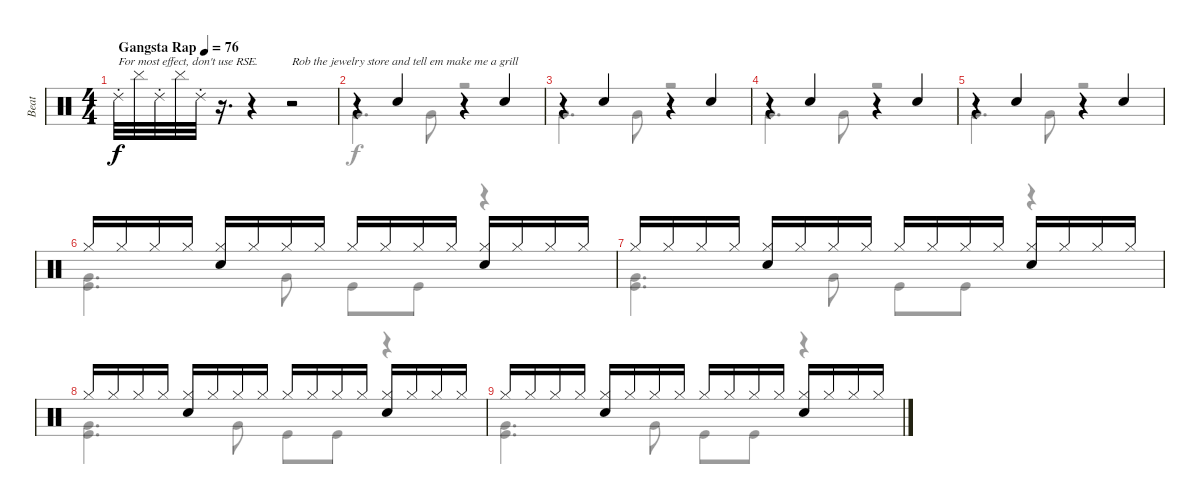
\track ("Beat" "Beat") {instrument percussion}
\staff {score}
\articulation defaults
\voice
\ts (4 4)
\tempo (76 "Gangsta Rap")
\clef neutral
\ks c "Ride (choke) 2".32{txt "For most effect, don't use RSE." dy f} "Cymbal (hit)".32 "Ride (choke) 2".32 "Cymbal (hit)".32 "Ride (choke) 2".32
r.16{d} r.4 r.2{txt "Rob the jewelry store and tell em make me a grill"} |
r.4 "Hand Clap (hit)".4 r.4 "Hand Clap (hit)".4 |
r.4 "Hand Clap (hit)".4 r.4 "Hand Clap (hit)".4 |
r.4 "Hand Clap (hit)".4 r.4 "Hand Clap (hit)".4 |
r.4 "Hand Clap (hit)".4 r.4 "Hand Clap (hit)".4 |
"Hi-Hat (closed)".16 "Hi-Hat (closed)".16 "Hi-Hat (closed)".16 "Hi-Hat (closed)".16 ("Hi-Hat (closed)" "Hand Clap (hit)").16 "Hi-Hat (closed)".16 "Hi-Hat (closed)".16 "Hi-Hat (closed)".16 "Hi-Hat (closed)".16 "Hi-Hat (closed)".16 "Hi-Hat (closed)".16 "Hi-Hat (closed)".16 ("Hi-Hat (closed)" "Hand Clap (hit)").16 "Hi-Hat (closed)".16 "Hi-Hat (closed)".16 "Hi-Hat (closed)".16 |
"Hi-Hat (closed)".16 "Hi-Hat (closed)".16 "Hi-Hat (closed)".16 "Hi-Hat (closed)".16 ("Hi-Hat (closed)" "Hand Clap (hit)").16 "Hi-Hat (closed)".16 "Hi-Hat (closed)".16 "Hi-Hat (closed)".16 "Hi-Hat (closed)".16 "Hi-Hat (closed)".16 "Hi-Hat (closed)".16 "Hi-Hat (closed)".16 ("Hi-Hat (closed)" "Hand Clap (hit)").16 "Hi-Hat (closed)".16 "Hi-Hat (closed)".16 "Hi-Hat (closed)".16 |
"Hi-Hat (closed)".16 "Hi-Hat (closed)".16 "Hi-Hat (closed)".16 "Hi-Hat (closed)".16 ("Hi-Hat (closed)" "Hand Clap (hit)").16 "Hi-Hat (closed)".16 "Hi-Hat (closed)".16 "Hi-Hat (closed)".16 "Hi-Hat (closed)".16 "Hi-Hat (closed)".16 "Hi-Hat (closed)".16 "Hi-Hat (closed)".16 ("Hi-Hat (closed)" "Hand Clap (hit)").16 "Hi-Hat (closed)".16 "Hi-Hat (closed)".16 "Hi-Hat (closed)".16 |
"Hi-Hat (closed)".16 "Hi-Hat (closed)".16 "Hi-Hat (closed)".16 "Hi-Hat (closed)".16 ("Hi-Hat (closed)" "Hand Clap (hit)").16 "Hi-Hat (closed)".16 "Hi-Hat (closed)".16 "Hi-Hat (closed)".16 "Hi-Hat (closed)".16 "Hi-Hat (closed)".16 "Hi-Hat (closed)".16 "Hi-Hat (closed)".16 ("Hi-Hat (closed)" "Hand Clap (hit)").16 "Hi-Hat (closed)".16 "Hi-Hat (closed)".16 "Hi-Hat (closed)".16
\voice
\clef neutral
\ottava regular
\simile none
\ks c
|
"Very Low Tom (hit)".4{d} "Very Low Tom (hit)".8 r.2 |
"Very Low Tom (hit)".4{d} "Very Low Tom (hit)".8 r.2 |
"Very Low Tom (hit)".4{d} "Very Low Tom (hit)".8 r.2 |
"Very Low Tom (hit)".4{d} "Very Low Tom (hit)".8 r.2 |
("Very Low Tom (hit)" "Kick (hit)").4{d} "Very Low Tom (hit)".8 "Kick (hit)".8 "Kick (hit)".8 r.4 |
("Very Low Tom (hit)" "Kick (hit)").4{d} "Very Low Tom (hit)".8 "Kick (hit)".8 "Kick (hit)".8 r.4 |
("Very Low Tom (hit)" "Kick (hit)").4{d} "Very Low Tom (hit)".8 "Kick (hit)".8 "Kick (hit)".8 r.4 |
("Very Low Tom (hit)" "Kick (hit)").4{d} "Very Low Tom (hit)".8 "Kick (hit)".8 "Kick (hit)".8 r.4
